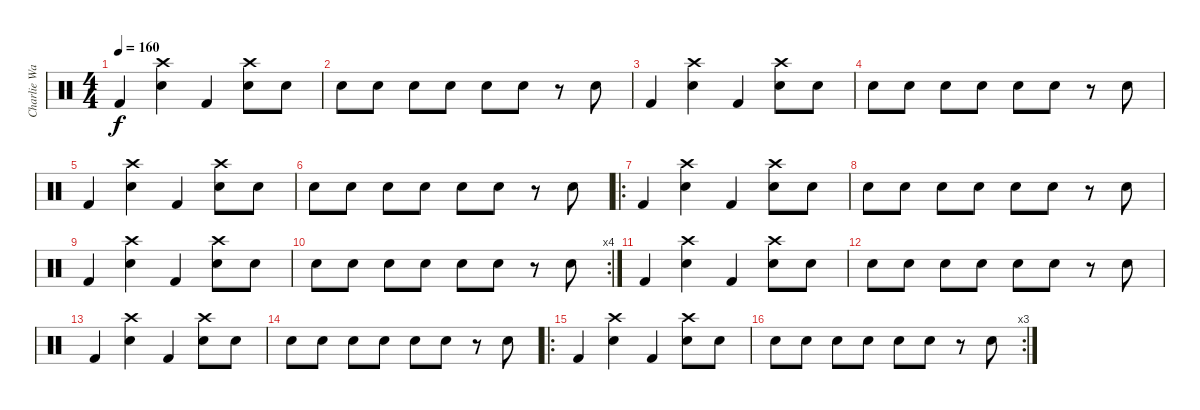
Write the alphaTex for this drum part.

\track ("Charlie Watts" "Charlie Wa") {instrument percussion}
\staff {score}
\articulation defaults
\ts (4 4)
\tempo 160
\clef neutral
\ks c "Kick (hit) 2".4{dy f}
("Snare (hit) 2" "Crash high (hit)").4 "Kick (hit) 2".4 ("Snare (hit) 2" "Crash high (hit)").8 "Snare (hit) 2".8 |
"Snare (hit) 2".8 "Snare (hit) 2".8 "Snare (hit) 2".8 "Snare (hit) 2".8 "Snare (hit) 2".8 "Snare (hit) 2".8 r.8 "Snare (hit) 2".8 |
"Kick (hit) 2".4 ("Snare (hit) 2" "Crash high (hit)").4 "Kick (hit) 2".4 ("Snare (hit) 2" "Crash high (hit)").8 "Snare (hit) 2".8 |
"Snare (hit) 2".8 "Snare (hit) 2".8 "Snare (hit) 2".8 "Snare (hit) 2".8 "Snare (hit) 2".8 "Snare (hit) 2".8 r.8 "Snare (hit) 2".8 |
"Kick (hit) 2".4 ("Snare (hit) 2" "Crash high (hit)").4 "Kick (hit) 2".4 ("Snare (hit) 2" "Crash high (hit)").8 "Snare (hit) 2".8 |
"Snare (hit) 2".8 "Snare (hit) 2".8 "Snare (hit) 2".8 "Snare (hit) 2".8 "Snare (hit) 2".8 "Snare (hit) 2".8 r.8 "Snare (hit) 2".8 |
\ro "Kick (hit) 2".4
("Snare (hit) 2" "Crash high (hit)").4 "Kick (hit) 2".4 ("Snare (hit) 2" "Crash high (hit)").8 "Snare (hit) 2".8 |
"Snare (hit) 2".8 "Snare (hit) 2".8 "Snare (hit) 2".8 "Snare (hit) 2".8 "Snare (hit) 2".8 "Snare (hit) 2".8 r.8 "Snare (hit) 2".8 |
"Kick (hit) 2".4 ("Snare (hit) 2" "Crash high (hit)").4 "Kick (hit) 2".4 ("Snare (hit) 2" "Crash high (hit)").8 "Snare (hit) 2".8 |
\rc 4 "Snare (hit) 2".8 "Snare (hit) 2".8 "Snare (hit) 2".8 "Snare (hit) 2".8 "Snare (hit) 2".8 "Snare (hit) 2".8
r.8 "Snare (hit) 2".8 |
"Kick (hit) 2".4 ("Snare (hit) 2" "Crash high (hit)").4 "Kick (hit) 2".4 ("Snare (hit) 2" "Crash high (hit)").8 "Snare (hit) 2".8 |
"Snare (hit) 2".8 "Snare (hit) 2".8 "Snare (hit) 2".8 "Snare (hit) 2".8 "Snare (hit) 2".8 "Snare (hit) 2".8 r.8 "Snare (hit) 2".8 |
"Kick (hit) 2".4 ("Snare (hit) 2" "Crash high (hit)").4 "Kick (hit) 2".4 ("Snare (hit) 2" "Crash high (hit)").8 "Snare (hit) 2".8 |
"Snare (hit) 2".8 "Snare (hit) 2".8 "Snare (hit) 2".8 "Snare (hit) 2".8 "Snare (hit) 2".8 "Snare (hit) 2".8 r.8 "Snare (hit) 2".8 |
\ro "Kick (hit) 2".4
("Snare (hit) 2" "Crash high (hit)").4 "Kick (hit) 2".4 ("Snare (hit) 2" "Crash high (hit)").8 "Snare (hit) 2".8 |
\rc 3 "Snare (hit) 2".8 "Snare (hit) 2".8 "Snare (hit) 2".8 "Snare (hit) 2".8 "Snare (hit) 2".8 "Snare (hit) 2".8
r.8 "Snare (hit) 2".8
